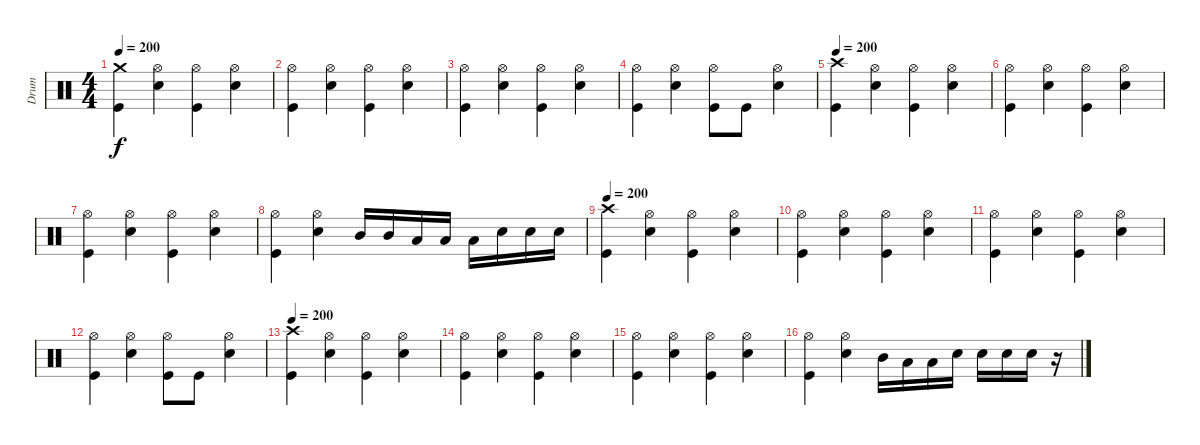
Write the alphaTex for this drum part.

\track ("Drum" "Drum") {instrument percussion}
\staff {score}
\articulation defaults
\ts (4 4)
\tempo 200
\clef neutral
\ks c
("Crash medium (hit)" "Kick (hit)").4{dy f} ("Hi-Hat (open)" "Electric Snare (hit)").4 ("Hi-Hat (open)" "Kick (hit)").4 ("Hi-Hat (open)" "Electric Snare (hit)").4 |
("Hi-Hat (open)" "Kick (hit)").4 ("Hi-Hat (open)" "Electric Snare (hit)").4 ("Hi-Hat (open)" "Kick (hit)").4 ("Hi-Hat (open)" "Electric Snare (hit)").4 |
("Hi-Hat (open)" "Kick (hit)").4 ("Hi-Hat (open)" "Electric Snare (hit)").4 ("Hi-Hat (open)" "Kick (hit)").4 ("Hi-Hat (open)" "Electric Snare (hit)").4 |
("Hi-Hat (open)" "Kick (hit)").4 ("Hi-Hat (open)" "Electric Snare (hit)").4 ("Hi-Hat (open)" "Kick (hit)").8 "Kick (hit)".8 ("Hi-Hat (open)" "Electric Snare (hit)").4 |
\tempo 200
("Crash high (hit)" "Kick (hit)").4 ("Hi-Hat (open)" "Electric Snare (hit)").4 ("Hi-Hat (open)" "Kick (hit)").4 ("Hi-Hat (open)" "Electric Snare (hit)").4 |
("Hi-Hat (open)" "Kick (hit)").4 ("Hi-Hat (open)" "Electric Snare (hit)").4 ("Hi-Hat (open)" "Kick (hit)").4 ("Hi-Hat (open)" "Electric Snare (hit)").4 |
("Hi-Hat (open)" "Kick (hit)").4 ("Hi-Hat (open)" "Electric Snare (hit)").4 ("Hi-Hat (open)" "Kick (hit)").4 ("Hi-Hat (open)" "Electric Snare (hit)").4 |
("Hi-Hat (open)" "Kick (hit)").4 ("Hi-Hat (open)" "Electric Snare (hit)").4 "Mid Tom (hit)".16 "Mid Tom (hit)".16 "Low Tom (hit)".16 "Low Tom (hit)".16 "Low Tom (hit)".16 "Electric Snare (hit)".16 "Electric Snare (hit)".16 "Electric Snare (hit)".16 |
\tempo 200
("Crash high (hit)" "Kick (hit)").4 ("Hi-Hat (open)" "Electric Snare (hit)").4 ("Hi-Hat (open)" "Kick (hit)").4 ("Hi-Hat (open)" "Electric Snare (hit)").4 |
("Hi-Hat (open)" "Kick (hit)").4 ("Hi-Hat (open)" "Electric Snare (hit)").4 ("Hi-Hat (open)" "Kick (hit)").4 ("Hi-Hat (open)" "Electric Snare (hit)").4 |
("Hi-Hat (open)" "Kick (hit)").4 ("Hi-Hat (open)" "Electric Snare (hit)").4 ("Hi-Hat (open)" "Kick (hit)").4 ("Hi-Hat (open)" "Electric Snare (hit)").4 |
("Hi-Hat (open)" "Kick (hit)").4 ("Hi-Hat (open)" "Electric Snare (hit)").4 ("Hi-Hat (open)" "Kick (hit)").8 "Kick (hit)".8 ("Hi-Hat (open)" "Electric Snare (hit)").4 |
\tempo 200
("Crash high (hit)" "Kick (hit)").4 ("Hi-Hat (open)" "Electric Snare (hit)").4 ("Hi-Hat (open)" "Kick (hit)").4 ("Hi-Hat (open)" "Electric Snare (hit)").4 |
("Hi-Hat (open)" "Kick (hit)").4 ("Hi-Hat (open)" "Electric Snare (hit)").4 ("Hi-Hat (open)" "Kick (hit)").4 ("Hi-Hat (open)" "Electric Snare (hit)").4 |
("Hi-Hat (open)" "Kick (hit)").4 ("Hi-Hat (open)" "Electric Snare (hit)").4 ("Hi-Hat (open)" "Kick (hit)").4 ("Hi-Hat (open)" "Electric Snare (hit)").4 |
("Hi-Hat (open)" "Kick (hit)").4 ("Hi-Hat (open)" "Electric Snare (hit)").4 "Mid Tom (hit)".16 "Low Tom (hit)".16 "Low Tom (hit)".16 "Electric Snare (hit)".16 "Electric Snare (hit)".16 "Electric Snare (hit)".16 "Electric Snare (hit)".16 r.16
